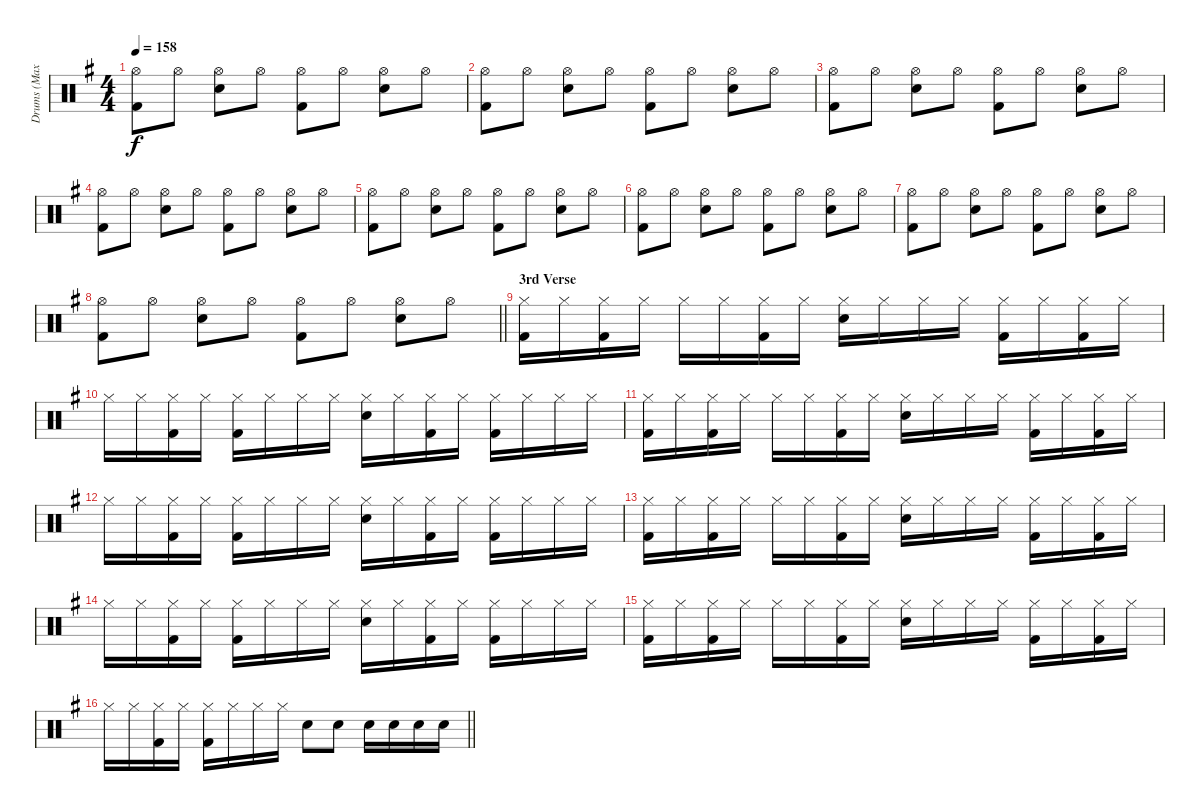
\track ("Drums (Max)" "Drums (Max") {instrument percussion}
\staff {score}
\articulation defaults
\ts (4 4)
\tempo 158
\clef neutral
\ks g
("Hi-Hat (open)" "Kick (hit) 2").8{dy f} "Hi-Hat (open)".8 ("Hi-Hat (open)" "Snare (hit) 2").8 "Hi-Hat (open)".8 ("Hi-Hat (open)" "Kick (hit) 2").8 "Hi-Hat (open)".8 ("Hi-Hat (open)" "Snare (hit) 2").8 "Hi-Hat (open)".8 |
("Hi-Hat (open)" "Kick (hit) 2").8 "Hi-Hat (open)".8 ("Hi-Hat (open)" "Snare (hit) 2").8 "Hi-Hat (open)".8 ("Hi-Hat (open)" "Kick (hit) 2").8 "Hi-Hat (open)".8 ("Hi-Hat (open)" "Snare (hit) 2").8 "Hi-Hat (open)".8 |
("Hi-Hat (open)" "Kick (hit) 2").8 "Hi-Hat (open)".8 ("Hi-Hat (open)" "Snare (hit) 2").8 "Hi-Hat (open)".8 ("Hi-Hat (open)" "Kick (hit) 2").8 "Hi-Hat (open)".8 ("Hi-Hat (open)" "Snare (hit) 2").8 "Hi-Hat (open)".8 |
("Hi-Hat (open)" "Kick (hit) 2").8 "Hi-Hat (open)".8 ("Hi-Hat (open)" "Snare (hit) 2").8 "Hi-Hat (open)".8 ("Hi-Hat (open)" "Kick (hit) 2").8 "Hi-Hat (open)".8 ("Hi-Hat (open)" "Snare (hit) 2").8 "Hi-Hat (open)".8 |
("Hi-Hat (open)" "Kick (hit) 2").8 "Hi-Hat (open)".8 ("Hi-Hat (open)" "Snare (hit) 2").8 "Hi-Hat (open)".8 ("Hi-Hat (open)" "Kick (hit) 2").8 "Hi-Hat (open)".8 ("Hi-Hat (open)" "Snare (hit) 2").8 "Hi-Hat (open)".8 |
("Hi-Hat (open)" "Kick (hit) 2").8 "Hi-Hat (open)".8 ("Hi-Hat (open)" "Snare (hit) 2").8 "Hi-Hat (open)".8 ("Hi-Hat (open)" "Kick (hit) 2").8 "Hi-Hat (open)".8 ("Hi-Hat (open)" "Snare (hit) 2").8 "Hi-Hat (open)".8 |
("Hi-Hat (open)" "Kick (hit) 2").8 "Hi-Hat (open)".8 ("Hi-Hat (open)" "Snare (hit) 2").8 "Hi-Hat (open)".8 ("Hi-Hat (open)" "Kick (hit) 2").8 "Hi-Hat (open)".8 ("Hi-Hat (open)" "Snare (hit) 2").8 "Hi-Hat (open)".8 |
\barLineRight lightlight
("Hi-Hat (open)" "Kick (hit) 2").8 "Hi-Hat (open)".8 ("Hi-Hat (open)" "Snare (hit) 2").8 "Hi-Hat (open)".8 ("Hi-Hat (open)" "Kick (hit) 2").8 "Hi-Hat (open)".8 ("Hi-Hat (open)" "Snare (hit) 2").8 "Hi-Hat (open)".8 |
\section ("" "3rd Verse")
("Hi-Hat (closed)" "Kick (hit) 2").16 "Hi-Hat (closed)".16 ("Hi-Hat (closed)" "Kick (hit) 2").16 "Hi-Hat (closed)".16 "Hi-Hat (closed)".16 "Hi-Hat (closed)".16 ("Hi-Hat (closed)" "Kick (hit) 2").16 "Hi-Hat (closed)".16 ("Hi-Hat (closed)" "Snare (hit) 2").16 "Hi-Hat (closed)".16 "Hi-Hat (closed)".16 "Hi-Hat (closed)".16 ("Hi-Hat (closed)" "Kick (hit) 2").16 "Hi-Hat (closed)".16 ("Hi-Hat (closed)" "Kick (hit) 2").16 "Hi-Hat (closed)".16 |
"Hi-Hat (closed)".16 "Hi-Hat (closed)".16 ("Hi-Hat (closed)" "Kick (hit) 2").16 "Hi-Hat (closed)".16 ("Hi-Hat (closed)" "Kick (hit) 2").16 "Hi-Hat (closed)".16 "Hi-Hat (closed)".16 "Hi-Hat (closed)".16 ("Hi-Hat (closed)" "Snare (hit) 2").16 "Hi-Hat (closed)".16 ("Hi-Hat (closed)" "Kick (hit) 2").16 "Hi-Hat (closed)".16 ("Hi-Hat (closed)" "Kick (hit) 2").16 "Hi-Hat (closed)".16 "Hi-Hat (closed)".16 "Hi-Hat (closed)".16 |
("Hi-Hat (closed)" "Kick (hit) 2").16 "Hi-Hat (closed)".16 ("Hi-Hat (closed)" "Kick (hit) 2").16 "Hi-Hat (closed)".16 "Hi-Hat (closed)".16 "Hi-Hat (closed)".16 ("Hi-Hat (closed)" "Kick (hit) 2").16 "Hi-Hat (closed)".16 ("Hi-Hat (closed)" "Snare (hit) 2").16 "Hi-Hat (closed)".16 "Hi-Hat (closed)".16 "Hi-Hat (closed)".16 ("Hi-Hat (closed)" "Kick (hit) 2").16 "Hi-Hat (closed)".16 ("Hi-Hat (closed)" "Kick (hit) 2").16 "Hi-Hat (closed)".16 |
"Hi-Hat (closed)".16 "Hi-Hat (closed)".16 ("Hi-Hat (closed)" "Kick (hit) 2").16 "Hi-Hat (closed)".16 ("Hi-Hat (closed)" "Kick (hit) 2").16 "Hi-Hat (closed)".16 "Hi-Hat (closed)".16 "Hi-Hat (closed)".16 ("Hi-Hat (closed)" "Snare (hit) 2").16 "Hi-Hat (closed)".16 ("Hi-Hat (closed)" "Kick (hit) 2").16 "Hi-Hat (closed)".16 ("Hi-Hat (closed)" "Kick (hit) 2").16 "Hi-Hat (closed)".16 "Hi-Hat (closed)".16 "Hi-Hat (closed)".16 |
("Hi-Hat (closed)" "Kick (hit) 2").16 "Hi-Hat (closed)".16 ("Hi-Hat (closed)" "Kick (hit) 2").16 "Hi-Hat (closed)".16 "Hi-Hat (closed)".16 "Hi-Hat (closed)".16 ("Hi-Hat (closed)" "Kick (hit) 2").16 "Hi-Hat (closed)".16 ("Hi-Hat (closed)" "Snare (hit) 2").16 "Hi-Hat (closed)".16 "Hi-Hat (closed)".16 "Hi-Hat (closed)".16 ("Hi-Hat (closed)" "Kick (hit) 2").16 "Hi-Hat (closed)".16 ("Hi-Hat (closed)" "Kick (hit) 2").16 "Hi-Hat (closed)".16 |
"Hi-Hat (closed)".16 "Hi-Hat (closed)".16 ("Hi-Hat (closed)" "Kick (hit) 2").16 "Hi-Hat (closed)".16 ("Hi-Hat (closed)" "Kick (hit) 2").16 "Hi-Hat (closed)".16 "Hi-Hat (closed)".16 "Hi-Hat (closed)".16 ("Hi-Hat (closed)" "Snare (hit) 2").16 "Hi-Hat (closed)".16 ("Hi-Hat (closed)" "Kick (hit) 2").16 "Hi-Hat (closed)".16 ("Hi-Hat (closed)" "Kick (hit) 2").16 "Hi-Hat (closed)".16 "Hi-Hat (closed)".16 "Hi-Hat (closed)".16 |
("Hi-Hat (closed)" "Kick (hit) 2").16 "Hi-Hat (closed)".16 ("Hi-Hat (closed)" "Kick (hit) 2").16 "Hi-Hat (closed)".16 "Hi-Hat (closed)".16 "Hi-Hat (closed)".16 ("Hi-Hat (closed)" "Kick (hit) 2").16 "Hi-Hat (closed)".16 ("Hi-Hat (closed)" "Snare (hit) 2").16 "Hi-Hat (closed)".16 "Hi-Hat (closed)".16 "Hi-Hat (closed)".16 ("Hi-Hat (closed)" "Kick (hit) 2").16 "Hi-Hat (closed)".16 ("Hi-Hat (closed)" "Kick (hit) 2").16 "Hi-Hat (closed)".16 |
\barLineRight lightlight "Hi-Hat (closed)".16 "Hi-Hat (closed)".16
("Hi-Hat (closed)" "Kick (hit) 2").16 "Hi-Hat (closed)".16 ("Hi-Hat (closed)" "Kick (hit) 2").16 "Hi-Hat (closed)".16 "Hi-Hat (closed)".16 "Hi-Hat (closed)".16 "Snare (hit) 2".8 "Snare (hit) 2".8 "Snare (hit) 2".16 "Snare (hit) 2".16 "Snare (hit) 2".16 "Snare (hit) 2".16
